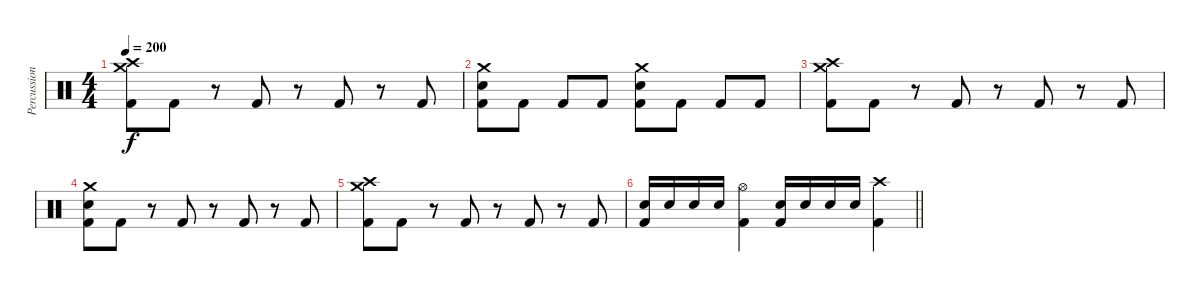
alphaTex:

\track ("Percussion" "Percussion") {instrument percussion}
\staff {score}
\articulation defaults
\ts (4 4)
\tempo 200
\clef neutral
\ks c
("Crash medium (hit)" "Crash high (hit)" "Kick (hit) 2").8{dy f} "Kick (hit) 2".8 r.8 "Kick (hit) 2".8 r.8 "Kick (hit) 2".8 r.8 "Kick (hit) 2".8 |
("Crash medium (hit)" "Electric Snare (hit)" "Kick (hit) 2").8 "Kick (hit) 2".8 "Kick (hit) 2".8 "Kick (hit) 2".8 ("Crash medium (hit)" "Electric Snare (hit)" "Kick (hit) 2").8 "Kick (hit) 2".8 "Kick (hit) 2".8 "Kick (hit) 2".8 |
("Crash medium (hit)" "Crash high (hit)" "Kick (hit) 2").8 "Kick (hit) 2".8 r.8 "Kick (hit) 2".8 r.8 "Kick (hit) 2".8 r.8 "Kick (hit) 2".8 |
("Crash medium (hit)" "Electric Snare (hit)" "Kick (hit) 2").8 "Kick (hit) 2".8 r.8 "Kick (hit) 2".8 r.8 "Kick (hit) 2".8 r.8 "Kick (hit) 2".8 |
("Crash medium (hit)" "Crash high (hit)" "Kick (hit) 2").8 "Kick (hit) 2".8 r.8 "Kick (hit) 2".8 r.8 "Kick (hit) 2".8 r.8 "Kick (hit) 2".8 |
\barLineRight lightlight
("Electric Snare (hit)" "Kick (hit) 2").16 "Electric Snare (hit)".16 "Electric Snare (hit)".16 "Electric Snare (hit)".16 ("Hi-Hat (open)" "Kick (hit) 2").4 ("Electric Snare (hit)" "Kick (hit) 2").16 "Electric Snare (hit)".16 "Electric Snare (hit)".16 "Electric Snare (hit)".16 ("Crash high (hit)" "Kick (hit) 2").4
